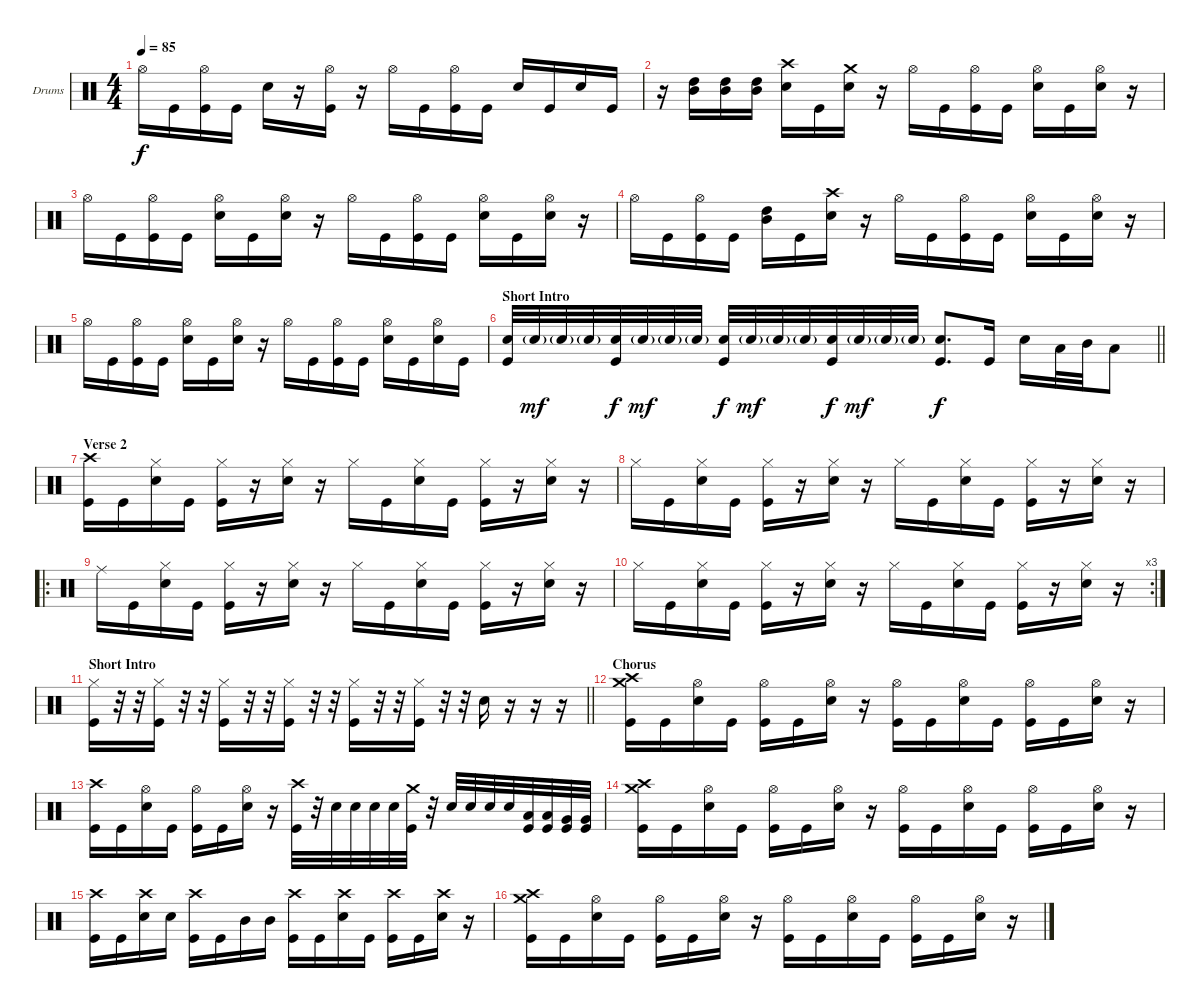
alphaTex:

\bracketExtendMode groupsimilarinstruments
\firstSystemTrackNameOrientation horizontal
\otherSystemsTrackNameOrientation horizontal
\track ("Drumkit" "Drums") {instrument percussion}
\staff {score}
\articulation defaults
\ts (4 4)
\tempo 85
\clef neutral
\ks c "Hi-Hat (open)".16{dy f} "Kick (hit)".16
("Kick (hit)" "Hi-Hat (open)").16 "Kick (hit)".16 "Snare (hit) 2".16 r.16 ("Kick (hit)" "Hi-Hat (open)").16 r.16 "Hi-Hat (open)".16 "Kick (hit)".16 ("Kick (hit)" "Hi-Hat (open)").16 "Kick (hit)".16 "Snare (hit) 2".16 "Kick (hit)".16 "Snare (hit) 2".16 "Kick (hit)".16 |
r.16 ("High Tom (hit)" "Mid Tom (hit)").16 ("High Tom (hit)" "Mid Tom (hit)").16 ("High Tom (hit)" "Mid Tom (hit)").16 ("Snare (hit) 2" "Crash high (hit)").16 "Kick (hit)".16 ("Snare (hit) 2" "Crash medium (hit)").16 r.16 "Hi-Hat (open)".16 "Kick (hit)".16 ("Kick (hit)" "Hi-Hat (open)").16 "Kick (hit)".16 ("Snare (hit) 2" "Hi-Hat (open)").16 "Kick (hit)".16 ("Snare (hit) 2" "Hi-Hat (open)").16 r.16 |
"Hi-Hat (open)".16 "Kick (hit)".16 ("Kick (hit)" "Hi-Hat (open)").16 "Kick (hit)".16 ("Snare (hit) 2" "Hi-Hat (open)").16 "Kick (hit)".16 ("Snare (hit) 2" "Hi-Hat (open)").16 r.16 "Hi-Hat (open)".16 "Kick (hit)".16 ("Kick (hit)" "Hi-Hat (open)").16 "Kick (hit)".16 ("Snare (hit) 2" "Hi-Hat (open)").16 "Kick (hit)".16 ("Snare (hit) 2" "Hi-Hat (open)").16 r.16 |
"Hi-Hat (open)".16 "Kick (hit)".16 ("Kick (hit)" "Hi-Hat (open)").16 "Kick (hit)".16 ("Mid Tom (hit)" "High Tom (hit)").16 "Kick (hit)".16 ("Snare (hit) 2" "Crash high (hit)").16 r.16 "Hi-Hat (open)".16 "Kick (hit)".16 ("Kick (hit)" "Hi-Hat (open)").16 "Kick (hit)".16 ("Snare (hit) 2" "Hi-Hat (open)").16 "Kick (hit)".16 ("Snare (hit) 2" "Hi-Hat (open)").16 r.16 |
"Hi-Hat (open)".16 "Kick (hit)".16 ("Kick (hit)" "Hi-Hat (open)").16 "Kick (hit)".16 ("Snare (hit) 2" "Hi-Hat (open)").16 "Kick (hit)".16 ("Snare (hit) 2" "Hi-Hat (open)").16 r.16 "Hi-Hat (open)".16 "Kick (hit)".16 ("Kick (hit)" "Hi-Hat (open)").16 "Kick (hit)".16 ("Snare (hit) 2" "Hi-Hat (open)").16 "Kick (hit)".16 ("Snare (hit) 2" "Hi-Hat (open)").16 "Kick (hit)".16 |
\section ("" "Short Intro")
\barLineRight lightlight
("Snare (hit) 2" "Kick (hit)").32 "Snare (hit) 2"{g}.32{dy mf} "Snare (hit) 2"{g}.32 "Snare (hit) 2"{g}.32 ("Snare (hit) 2" "Kick (hit)").32{dy f} "Snare (hit) 2"{g}.32{dy mf} "Snare (hit) 2"{g}.32 "Snare (hit) 2"{g}.32 ("Snare (hit) 2" "Kick (hit)").32{dy f} "Snare (hit) 2"{g}.32{dy mf} "Snare (hit) 2"{g}.32 "Snare (hit) 2"{g}.32 ("Snare (hit) 2" "Kick (hit)").32{dy f} "Snare (hit) 2"{g}.32{dy mf} "Snare (hit) 2"{g}.32 "Snare (hit) 2"{g}.32 ("Snare (hit) 2" "Kick (hit)").8{d dy f} "Kick (hit)".16 "Snare (hit) 2".16 "Low Tom (hit)".32 "Mid Tom (hit)".32 "Low Tom (hit)".8 |
\section ("" "Verse 2")
("Crash high (hit)" "Kick (hit)").16 "Kick (hit)".16 ("Hi-Hat (closed)" "Snare (hit) 2").16 "Kick (hit)".16 ("Hi-Hat (closed)" "Kick (hit)").16 r.16 ("Hi-Hat (closed)" "Snare (hit) 2").16 r.16 "Hi-Hat (closed)".16 "Kick (hit)".16 ("Hi-Hat (closed)" "Snare (hit) 2").16 "Kick (hit)".16 ("Hi-Hat (closed)" "Kick (hit)").16 r.16 ("Hi-Hat (closed)" "Snare (hit) 2").16 r.16 |
"Hi-Hat (closed)".16 "Kick (hit)".16 ("Hi-Hat (closed)" "Snare (hit) 2").16 "Kick (hit)".16 ("Hi-Hat (closed)" "Kick (hit)").16 r.16 ("Hi-Hat (closed)" "Snare (hit) 2").16 r.16 "Hi-Hat (closed)".16 "Kick (hit)".16 ("Hi-Hat (closed)" "Snare (hit) 2").16 "Kick (hit)".16 ("Hi-Hat (closed)" "Kick (hit)").16 r.16 ("Hi-Hat (closed)" "Snare (hit) 2").16 r.16 |
\ro "Ride (middle)".16 "Kick (hit)".16
("Hi-Hat (closed)" "Snare (hit) 2").16 "Kick (hit)".16 ("Hi-Hat (closed)" "Kick (hit)").16 r.16 ("Hi-Hat (closed)" "Snare (hit) 2").16 r.16 "Hi-Hat (closed)".16 "Kick (hit)".16 ("Hi-Hat (closed)" "Snare (hit) 2").16 "Kick (hit)".16 ("Hi-Hat (closed)" "Kick (hit)").16 r.16 ("Hi-Hat (closed)" "Snare (hit) 2").16 r.16 |
\rc 3 "Hi-Hat (closed)".16 "Kick (hit)".16
("Hi-Hat (closed)" "Snare (hit) 2").16 "Kick (hit)".16 ("Hi-Hat (closed)" "Kick (hit)").16 r.16 ("Hi-Hat (closed)" "Snare (hit) 2").16 r.16 "Hi-Hat (closed)".16 "Kick (hit)".16 ("Hi-Hat (closed)" "Snare (hit) 2").16 "Kick (hit)".16 ("Hi-Hat (closed)" "Kick (hit)").16 r.16 ("Hi-Hat (closed)" "Snare (hit) 2").16 r.16 |
\section ("" "Short Intro")
\barLineRight lightlight
("Hi-Hat (closed)" "Kick (hit)").16 r.32 r.32 ("Hi-Hat (closed)" "Kick (hit)").16 r.32 r.32 ("Hi-Hat (closed)" "Kick (hit)").16 r.32 r.32 ("Hi-Hat (closed)" "Kick (hit)").16 r.32 r.32 ("Hi-Hat (closed)" "Kick (hit)").16 r.32 r.32 ("Hi-Hat (closed)" "Kick (hit)").16 r.32 r.32 "Snare (hit) 2".16 r.16 r.16 r.16 |
\section ("" "Chorus")
("Kick (hit)" "Crash medium (hit)" "Crash high (hit)").16 "Kick (hit)".16 ("Snare (hit) 2" "Hi-Hat (open)").16 "Kick (hit)".16 ("Kick (hit)" "Hi-Hat (open)").16 "Kick (hit)".16 ("Snare (hit) 2" "Hi-Hat (open)").16 r.16 ("Kick (hit)" "Hi-Hat (open)").16 "Kick (hit)".16 ("Snare (hit) 2" "Hi-Hat (open)").16 "Kick (hit)".16 ("Kick (hit)" "Hi-Hat (open)").16 "Kick (hit)".16 ("Snare (hit) 2" "Hi-Hat (open)").16 r.16 |
("Kick (hit)" "Crash high (hit)").16 "Kick (hit)".16 ("Snare (hit) 2" "Hi-Hat (open)").16 "Kick (hit)".16 ("Kick (hit)" "Hi-Hat (open)").16 "Kick (hit)".16 ("Snare (hit) 2" "Hi-Hat (open)").16 r.16 ("Kick (hit)" "Crash high (hit)").32 r.32 "Snare (hit) 2".32 "Snare (hit) 2".32 "Snare (hit) 2".32 "Snare (hit) 2".32 ("Kick (hit)" "Crash medium (hit)").32 r.32 "Snare (hit) 2".32 "Snare (hit) 2".32 "Snare (hit) 2".32 "Snare (hit) 2".32 ("Low Tom (hit)" "Kick (hit)").32 ("Low Tom (hit)" "Kick (hit)").32 ("Very Low Tom (hit)" "Kick (hit)").32 ("Very Low Tom (hit)" "Kick (hit)").32 |
("Kick (hit)" "Crash medium (hit)" "Crash high (hit)").16 "Kick (hit)".16 ("Snare (hit) 2" "Hi-Hat (open)").16 "Kick (hit)".16 ("Kick (hit)" "Hi-Hat (open)").16 "Kick (hit)".16 ("Snare (hit) 2" "Hi-Hat (open)").16 r.16 ("Kick (hit)" "Hi-Hat (open)").16 "Kick (hit)".16 ("Snare (hit) 2" "Hi-Hat (open)").16 "Kick (hit)".16 ("Kick (hit)" "Hi-Hat (open)").16 "Kick (hit)".16 ("Snare (hit) 2" "Hi-Hat (open)").16 r.16 |
("Kick (hit)" "Crash high (hit)").16 "Kick (hit)".16 ("Snare (hit) 2" "Crash high (hit)").16 "Snare (hit) 2".16 ("Kick (hit)" "Crash high (hit)").16 "Kick (hit)".16 "Mid Tom (hit)".16 "Mid Tom (hit)".16 ("Kick (hit)" "Crash high (hit)").16 "Kick (hit)".16 ("Snare (hit) 2" "Crash high (hit)").16 "Kick (hit)".16 ("Kick (hit)" "Crash high (hit)").16 "Kick (hit)".16 ("Snare (hit) 2" "Crash high (hit)").16 r.16 |
("Kick (hit)" "Crash medium (hit)" "Crash high (hit)").16 "Kick (hit)".16 ("Snare (hit) 2" "Hi-Hat (open)").16 "Kick (hit)".16 ("Kick (hit)" "Hi-Hat (open)").16 "Kick (hit)".16 ("Snare (hit) 2" "Hi-Hat (open)").16 r.16 ("Kick (hit)" "Hi-Hat (open)").16 "Kick (hit)".16 ("Snare (hit) 2" "Hi-Hat (open)").16 "Kick (hit)".16 ("Kick (hit)" "Hi-Hat (open)").16 "Kick (hit)".16 ("Snare (hit) 2" "Hi-Hat (open)").16 r.16
